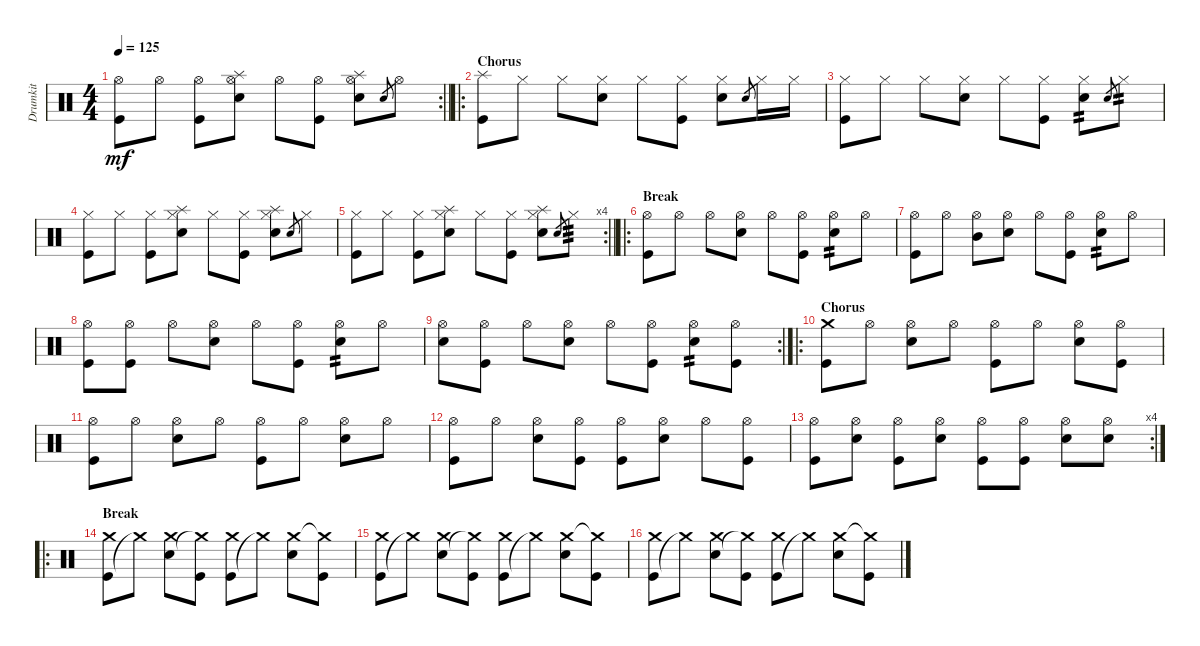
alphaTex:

\track ("Drumkit" "Drumkit") {instrument percussion}
\staff {score}
\articulation defaults
\rc 2
\ts (4 4)
\tempo 125
\clef neutral
\barLineRight lightlight
\ks c
("Kick (hit)" "Hi-Hat (open)").8{dy mf} "Hi-Hat (open)".8 ("Hi-Hat (open)" "Kick (hit)").8 ("Snare (hit) 2" "Hi-Hat (open)" "Splash (hit)").8 "Hi-Hat (open)".8 ("Kick (hit)" "Hi-Hat (open)").8 ("Snare (hit) 2" "Hi-Hat (open)" "Splash (hit)").8 "Snare (hit)".8{gr} "Hi-Hat (open)".8 |
\ro
\section ("" "Chorus")
("Splash (hit)" "Kick (hit)").8 "Hi-Hat (closed)".8 "Hi-Hat (closed)".8 ("Snare (hit) 2" "Hi-Hat (closed)").8 "Hi-Hat (closed)".8 ("Kick (hit)" "Hi-Hat (closed)").8 ("Snare (hit) 2" "Hi-Hat (closed)").8 "Snare (hit)".8{gr} "Hi-Hat (closed)".16 "Hi-Hat (closed)".16 |
("Kick (hit)" "Hi-Hat (closed)").8 "Hi-Hat (closed)".8 "Hi-Hat (closed)".8 ("Snare (hit) 2" "Hi-Hat (closed)").8 "Hi-Hat (closed)".8 ("Kick (hit)" "Hi-Hat (closed)").8 ("Snare (hit) 2" "Hi-Hat (closed)").8{tp 2} "Snare (hit)".8{gr} "Hi-Hat (closed)".8{tp 2} |
("Kick (hit)" "Hi-Hat (closed)").8 "Hi-Hat (closed)".8 ("Kick (hit)" "Hi-Hat (closed)").8 ("Snare (hit) 2" "Splash (hit)" "Hi-Hat (closed)").8 "Hi-Hat (closed)".8 ("Kick (hit)" "Hi-Hat (closed)").8 ("Snare (hit) 2" "Splash (hit)" "Hi-Hat (closed)").8 "Snare (hit)".8{gr} "Hi-Hat (closed)".8 |
\rc 4
\barLineRight lightlight
("Kick (hit)" "Hi-Hat (closed)").8 "Hi-Hat (closed)".8 ("Kick (hit)" "Hi-Hat (closed)").8 ("Snare (hit) 2" "Splash (hit)" "Hi-Hat (closed)").8 "Hi-Hat (closed)".8 ("Kick (hit)" "Hi-Hat (closed)").8 ("Snare (hit) 2" "Splash (hit)" "Hi-Hat (closed)").8 "Snare (hit)".8{gr} "Hi-Hat (closed)".8{tp 3} |
\ro
\section ("" "Break")
("Hi-Hat (open)" "Kick (hit)").8 "Hi-Hat (open)".8 "Hi-Hat (open)".8 ("Hi-Hat (open)" "Snare (hit) 2").8 "Hi-Hat (open)".8 ("Hi-Hat (open)" "Kick (hit)").8 ("Hi-Hat (open)" "Snare (hit) 2").8{tp 2} "Hi-Hat (open)".8 |
("Hi-Hat (open)" "Kick (hit)").8 "Hi-Hat (open)".8 ("Hi-Hat (open)" "Mid Tom (hit)").8 ("Hi-Hat (open)" "Snare (hit) 2").8 "Hi-Hat (open)".8 ("Hi-Hat (open)" "Kick (hit)").8 ("Hi-Hat (open)" "Snare (hit) 2").8{tp 2} "Hi-Hat (open)".8 |
("Hi-Hat (open)" "Kick (hit)").8 ("Hi-Hat (open)" "Kick (hit)").8 "Hi-Hat (open)".8 ("Hi-Hat (open)" "Snare (hit) 2").8 "Hi-Hat (open)".8 ("Hi-Hat (open)" "Kick (hit)").8 ("Hi-Hat (open)" "Snare (hit) 2").8{tp 2} "Hi-Hat (open)".8 |
\rc 2
("Hi-Hat (open)" "Snare (hit) 2").8 ("Hi-Hat (open)" "Kick (hit)").8 "Hi-Hat (open)".8 ("Hi-Hat (open)" "Snare (hit) 2").8 "Hi-Hat (open)".8 ("Hi-Hat (open)" "Kick (hit)").8 ("Hi-Hat (open)" "Snare (hit) 2").8{tp 2} ("Hi-Hat (open)" "Kick (hit)").8 |
\ro
\section ("" "Chorus")
("Crash medium (hit)" "Kick (hit)").8 "Hi-Hat (open)".8 ("Hi-Hat (open)" "Snare (hit) 2").8 "Hi-Hat (open)".8 ("Hi-Hat (open)" "Kick (hit)").8 "Hi-Hat (open)".8 ("Hi-Hat (open)" "Snare (hit) 2").8 ("Hi-Hat (open)" "Kick (hit)").8 |
("Hi-Hat (open)" "Kick (hit)").8 "Hi-Hat (open)".8 ("Hi-Hat (open)" "Snare (hit) 2").8 "Hi-Hat (open)".8 ("Hi-Hat (open)" "Kick (hit)").8 "Hi-Hat (open)".8 ("Hi-Hat (open)" "Snare (hit) 2").8 "Hi-Hat (open)".8 |
("Hi-Hat (open)" "Kick (hit)").8 "Hi-Hat (open)".8 ("Hi-Hat (open)" "Snare (hit) 2").8 ("Hi-Hat (open)" "Kick (hit)").8 ("Hi-Hat (open)" "Kick (hit)").8 ("Hi-Hat (open)" "Snare (hit) 2").8 "Hi-Hat (open)".8 ("Hi-Hat (open)" "Kick (hit)").8 |
\rc 4
("Hi-Hat (open)" "Kick (hit)").8 ("Hi-Hat (open)" "Snare (hit) 2").8 ("Hi-Hat (open)" "Kick (hit)").8 ("Hi-Hat (open)" "Snare (hit) 2").8 ("Hi-Hat (open)" "Kick (hit)").8 ("Hi-Hat (open)" "Kick (hit)").8 ("Hi-Hat (open)" "Snare (hit) 2").8 ("Hi-Hat (open)" "Snare (hit) 2").8 |
\ro
\section ("" "Break")
("Kick (hit)" "Crash medium (hit)").8 "Crash medium (hit)"{t}.8 ("Snare (hit) 2" "Crash medium (hit)").8 ("Crash medium (hit)"{t} "Kick (hit)").8 ("Kick (hit)" "Crash medium (hit)").8 "Crash medium (hit)"{t}.8 ("Snare (hit) 2" "Crash medium (hit)").8 ("Kick (hit)" "Crash medium (hit)"{t}).8 |
("Kick (hit)" "Crash medium (hit)").8 "Crash medium (hit)"{t}.8 ("Snare (hit) 2" "Crash medium (hit)").8 ("Crash medium (hit)"{t} "Kick (hit)").8 ("Kick (hit)" "Crash medium (hit)").8 "Crash medium (hit)"{t}.8 ("Snare (hit) 2" "Crash medium (hit)").8 ("Kick (hit)" "Crash medium (hit)"{t}).8 |
("Kick (hit)" "Crash medium (hit)").8 "Crash medium (hit)"{t}.8 ("Snare (hit) 2" "Crash medium (hit)").8 ("Crash medium (hit)"{t} "Kick (hit)").8 ("Kick (hit)" "Crash medium (hit)").8 "Crash medium (hit)"{t}.8 ("Snare (hit) 2" "Crash medium (hit)").8 ("Kick (hit)" "Crash medium (hit)"{t}).8
